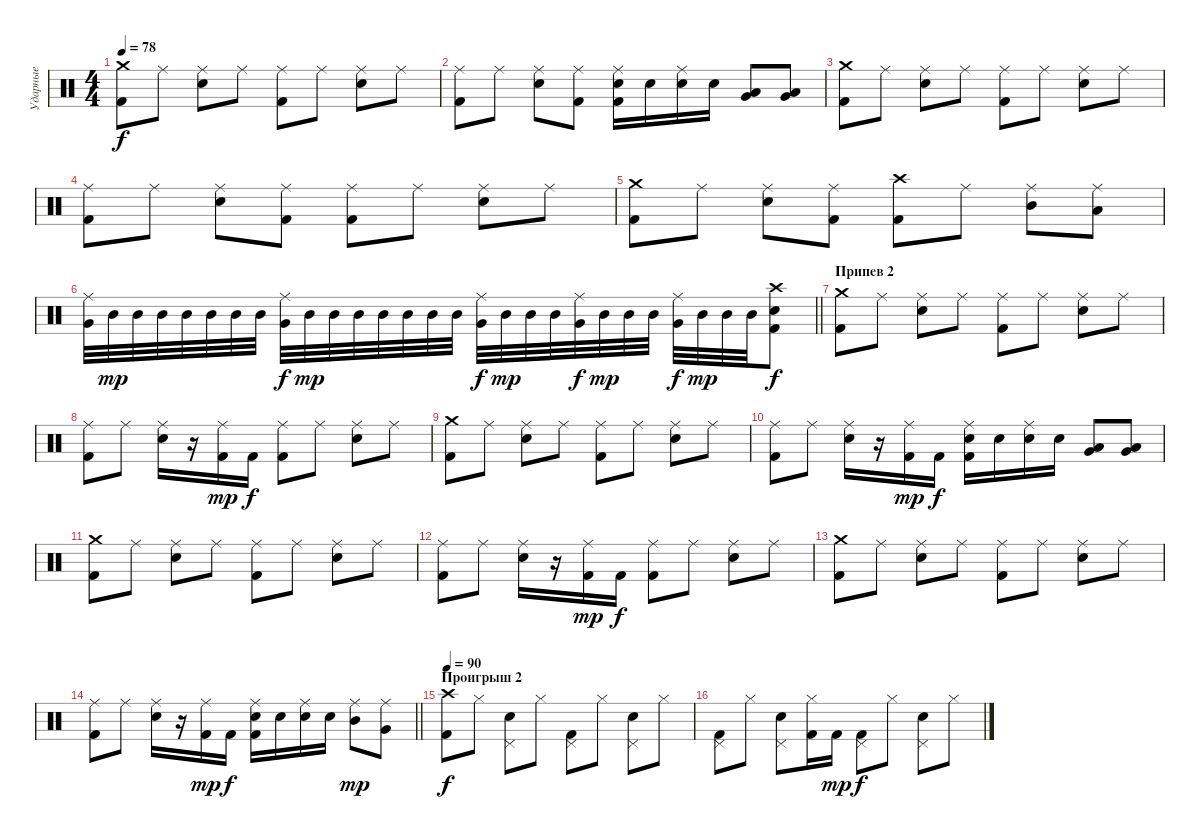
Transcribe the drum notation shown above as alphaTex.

\track ("Ударные" "Ударные") {instrument percussion}
\staff {score}
\articulation defaults
\ts (4 4)
\tempo 78
\clef neutral
\ks c
("Crash medium (hit)" "Kick (hit) 2").8{dy f} "Ride (middle)".8 ("Ride (middle)" "Snare (hit) 2").8 "Ride (middle)".8 ("Ride (middle)" "Kick (hit) 2").8 "Ride (middle)".8 ("Ride (middle)" "Snare (hit) 2").8 "Ride (middle)".8 |
("Ride (middle)" "Kick (hit) 2").8 "Ride (middle)".8 ("Ride (middle)" "Snare (hit) 2").8 ("Ride (middle)" "Kick (hit) 2").8 ("Ride (middle)" "Snare (hit) 2" "Kick (hit) 2").16 "Snare (hit) 2".16 ("Ride (middle)" "Snare (hit) 2").16 "Snare (hit) 2".16 ("Very Low Tom (hit)" "Low Floor Tom (hit)").8 ("Very Low Tom (hit)" "Low Floor Tom (hit)").8 |
("Crash medium (hit)" "Kick (hit) 2").8 "Ride (middle)".8 ("Ride (middle)" "Snare (hit) 2").8 "Ride (middle)".8 ("Ride (middle)" "Kick (hit) 2").8 "Ride (middle)".8 ("Ride (middle)" "Snare (hit) 2").8 "Ride (middle)".8 |
("Ride (middle)" "Kick (hit) 2").8 "Ride (middle)".8 ("Ride (middle)" "Snare (hit) 2").8 ("Ride (middle)" "Kick (hit) 2").8 ("Ride (middle)" "Kick (hit) 2").8 "Ride (middle)".8 ("Ride (middle)" "Snare (hit) 2").8 "Ride (middle)".8 |
("Crash medium (hit)" "Kick (hit) 2").8 "Ride (middle)".8 ("Ride (middle)" "Snare (hit) 2").8 ("Ride (middle)" "Kick (hit) 2").8 ("Crash high (hit)" "Kick (hit) 2").8 "Ride (middle)".8 ("Ride (middle)" "Mid Tom (hit)").8 ("Ride (middle)" "Low Tom (hit)").8 |
\barLineRight lightlight
("Ride (middle)" "Very Low Tom (hit)").32 "Mid Tom (hit)".32{dy mp} "Mid Tom (hit)".32 "Mid Tom (hit)".32 "Mid Tom (hit)".32 "Mid Tom (hit)".32 "Mid Tom (hit)".32 "Mid Tom (hit)".32 ("Ride (middle)" "Very Low Tom (hit)").32{dy f} "Mid Tom (hit)".32{dy mp} "Mid Tom (hit)".32 "Mid Tom (hit)".32 "Mid Tom (hit)".32 "Mid Tom (hit)".32 "Mid Tom (hit)".32 "Mid Tom (hit)".32 ("Ride (middle)" "Very Low Tom (hit)").32{dy f} "Mid Tom (hit)".32{dy mp} "Mid Tom (hit)".32 "Mid Tom (hit)".32 ("Ride (middle)" "Very Low Tom (hit)").32{dy f} "Mid Tom (hit)".32{dy mp} "Mid Tom (hit)".32 "Mid Tom (hit)".32 ("Ride (middle)" "Very Low Tom (hit)").32{dy f} "Mid Tom (hit)".32{dy mp} "Mid Tom (hit)".32 "Mid Tom (hit)".32 ("Crash high (hit)" "Snare (hit) 2" "Kick (hit) 2").8{dy f} |
\section ("" "Припев 2")
("Crash medium (hit)" "Kick (hit) 2").8 "Ride (middle)".8 ("Ride (middle)" "Snare (hit) 2").8 "Ride (middle)".8 ("Ride (middle)" "Kick (hit) 2").8 "Ride (middle)".8 ("Ride (middle)" "Snare (hit) 2").8 "Ride (middle)".8 |
("Ride (middle)" "Kick (hit) 2").8 "Ride (middle)".8 ("Ride (middle)" "Snare (hit) 2").16 r.16 ("Ride (middle)" "Kick (hit) 2").16{dy mp} "Kick (hit) 2".16{dy f} ("Ride (middle)" "Kick (hit) 2").8 "Ride (middle)".8 ("Ride (middle)" "Snare (hit) 2").8 "Ride (middle)".8 |
("Crash medium (hit)" "Kick (hit) 2").8 "Ride (middle)".8 ("Ride (middle)" "Snare (hit) 2").8 "Ride (middle)".8 ("Ride (middle)" "Kick (hit) 2").8 "Ride (middle)".8 ("Ride (middle)" "Snare (hit) 2").8 "Ride (middle)".8 |
("Ride (middle)" "Kick (hit) 2").8 "Ride (middle)".8 ("Ride (middle)" "Snare (hit) 2").16 r.16 ("Ride (middle)" "Kick (hit) 2").16{dy mp} "Kick (hit) 2".16{dy f} ("Ride (middle)" "Snare (hit) 2" "Kick (hit) 2").16 "Snare (hit) 2".16 ("Ride (middle)" "Snare (hit) 2").16 "Snare (hit) 2".16 ("Very Low Tom (hit)" "Low Floor Tom (hit)").8 ("Very Low Tom (hit)" "Low Floor Tom (hit)").8 |
("Crash medium (hit)" "Kick (hit) 2").8 "Ride (middle)".8 ("Ride (middle)" "Snare (hit) 2").8 "Ride (middle)".8 ("Ride (middle)" "Kick (hit) 2").8 "Ride (middle)".8 ("Ride (middle)" "Snare (hit) 2").8 "Ride (middle)".8 |
("Ride (middle)" "Kick (hit) 2").8 "Ride (middle)".8 ("Ride (middle)" "Snare (hit) 2").16 r.16 ("Ride (middle)" "Kick (hit) 2").16{dy mp} "Kick (hit) 2".16{dy f} ("Ride (middle)" "Kick (hit) 2").8 "Ride (middle)".8 ("Ride (middle)" "Snare (hit) 2").8 "Ride (middle)".8 |
("Crash medium (hit)" "Kick (hit) 2").8 "Ride (middle)".8 ("Ride (middle)" "Snare (hit) 2").8 "Ride (middle)".8 ("Ride (middle)" "Kick (hit) 2").8 "Ride (middle)".8 ("Ride (middle)" "Snare (hit) 2").8 "Ride (middle)".8 |
\barLineRight lightlight
("Ride (middle)" "Kick (hit) 2").8 "Ride (middle)".8 ("Ride (middle)" "Snare (hit) 2").16 r.16 ("Ride (middle)" "Kick (hit) 2").16{dy mp} "Kick (hit) 2".16{dy f} ("Ride (middle)" "Snare (hit) 2" "Kick (hit) 2").16 "Snare (hit) 2".16 ("Ride (middle)" "Snare (hit) 2").16 "Snare (hit) 2".16 ("Ride (middle)" "Mid Tom (hit)").8{dy mp} ("Ride (middle)" "Very Low Tom (hit)").8 |
\section ("" "Проигрыш 2")
\tempo 90
("Crash high (hit)" "Kick (hit) 2").8{dy f} "Hi-Hat (closed)".8 ("Pedal Hi-Hat (hit)" "Snare (hit) 2").8 "Hi-Hat (closed)".8 ("Pedal Hi-Hat (hit)" "Kick (hit) 2").8 "Hi-Hat (closed)".8 ("Pedal Hi-Hat (hit)" "Snare (hit) 2").8 "Hi-Hat (closed)".8 |
("Pedal Hi-Hat (hit)" "Kick (hit) 2").8 "Hi-Hat (closed)".8 ("Pedal Hi-Hat (hit)" "Snare (hit) 2").8 ("Hi-Hat (closed)" "Kick (hit) 2").16 "Kick (hit) 2".16{dy mp} ("Pedal Hi-Hat (hit)" "Kick (hit) 2").8{dy f} "Hi-Hat (closed)".8 ("Pedal Hi-Hat (hit)" "Snare (hit) 2").8 "Hi-Hat (closed)".8
